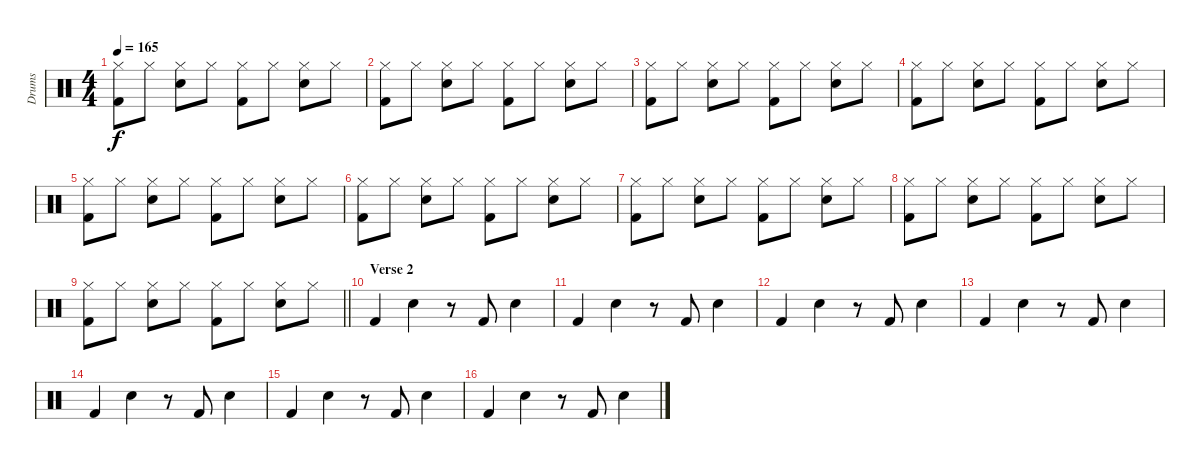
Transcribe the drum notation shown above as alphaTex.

\track ("Drums" "Drums") {instrument percussion}
\staff {score}
\articulation defaults
\ts (4 4)
\tempo 165
\clef neutral
\ks c
("Kick (hit) 2" "Hi-Hat (closed)").8{dy f} "Hi-Hat (closed)".8 ("Snare (hit) 2" "Hi-Hat (closed)").8 "Hi-Hat (closed)".8 ("Kick (hit) 2" "Hi-Hat (closed)").8 "Hi-Hat (closed)".8 ("Snare (hit) 2" "Hi-Hat (closed)").8 "Hi-Hat (closed)".8 |
("Kick (hit) 2" "Hi-Hat (closed)").8 "Hi-Hat (closed)".8 ("Snare (hit) 2" "Hi-Hat (closed)").8 "Hi-Hat (closed)".8 ("Kick (hit) 2" "Hi-Hat (closed)").8 "Hi-Hat (closed)".8 ("Snare (hit) 2" "Hi-Hat (closed)").8 "Hi-Hat (closed)".8 |
("Hi-Hat (closed)" "Kick (hit) 2").8 "Hi-Hat (closed)".8 ("Hi-Hat (closed)" "Snare (hit) 2").8 "Hi-Hat (closed)".8 ("Hi-Hat (closed)" "Kick (hit) 2").8 "Hi-Hat (closed)".8 ("Hi-Hat (closed)" "Snare (hit) 2").8 "Hi-Hat (closed)".8 |
("Hi-Hat (closed)" "Kick (hit) 2").8 "Hi-Hat (closed)".8 ("Hi-Hat (closed)" "Snare (hit) 2").8 "Hi-Hat (closed)".8 ("Hi-Hat (closed)" "Kick (hit) 2").8 "Hi-Hat (closed)".8 ("Hi-Hat (closed)" "Snare (hit) 2").8 "Hi-Hat (closed)".8 |
("Hi-Hat (closed)" "Kick (hit) 2").8 "Hi-Hat (closed)".8 ("Hi-Hat (closed)" "Snare (hit) 2").8 "Hi-Hat (closed)".8 ("Hi-Hat (closed)" "Kick (hit) 2").8 "Hi-Hat (closed)".8 ("Hi-Hat (closed)" "Snare (hit) 2").8 "Hi-Hat (closed)".8 |
("Kick (hit) 2" "Hi-Hat (closed)").8 "Hi-Hat (closed)".8 ("Snare (hit) 2" "Hi-Hat (closed)").8 "Hi-Hat (closed)".8 ("Kick (hit) 2" "Hi-Hat (closed)").8 "Hi-Hat (closed)".8 ("Snare (hit) 2" "Hi-Hat (closed)").8 "Hi-Hat (closed)".8 |
("Kick (hit) 2" "Hi-Hat (closed)").8 "Hi-Hat (closed)".8 ("Snare (hit) 2" "Hi-Hat (closed)").8 "Hi-Hat (closed)".8 ("Kick (hit) 2" "Hi-Hat (closed)").8 "Hi-Hat (closed)".8 ("Snare (hit) 2" "Hi-Hat (closed)").8 "Hi-Hat (closed)".8 |
("Hi-Hat (closed)" "Kick (hit) 2").8 "Hi-Hat (closed)".8 ("Hi-Hat (closed)" "Snare (hit) 2").8 "Hi-Hat (closed)".8 ("Hi-Hat (closed)" "Kick (hit) 2").8 "Hi-Hat (closed)".8 ("Hi-Hat (closed)" "Snare (hit) 2").8 "Hi-Hat (closed)".8 |
\barLineRight lightlight
("Kick (hit) 2" "Hi-Hat (closed)").8 "Hi-Hat (closed)".8 ("Snare (hit) 2" "Hi-Hat (closed)").8 "Hi-Hat (closed)".8 ("Kick (hit) 2" "Hi-Hat (closed)").8 "Hi-Hat (closed)".8 ("Snare (hit) 2" "Hi-Hat (closed)").8 "Hi-Hat (closed)".8 |
\section ("" "Verse 2")
"Kick (hit) 2".4 "Snare (hit) 2".4 r.8 "Kick (hit) 2".8 "Snare (hit) 2".4 |
"Kick (hit) 2".4 "Snare (hit) 2".4 r.8 "Kick (hit) 2".8 "Snare (hit) 2".4 |
"Kick (hit) 2".4 "Snare (hit) 2".4 r.8 "Kick (hit) 2".8 "Snare (hit) 2".4 |
"Kick (hit) 2".4 "Snare (hit) 2".4 r.8 "Kick (hit) 2".8 "Snare (hit) 2".4 |
"Kick (hit) 2".4 "Snare (hit) 2".4 r.8 "Kick (hit) 2".8 "Snare (hit) 2".4 |
"Kick (hit) 2".4 "Snare (hit) 2".4 r.8 "Kick (hit) 2".8 "Snare (hit) 2".4 |
"Kick (hit) 2".4 "Snare (hit) 2".4 r.8 "Kick (hit) 2".8 "Snare (hit) 2".4
